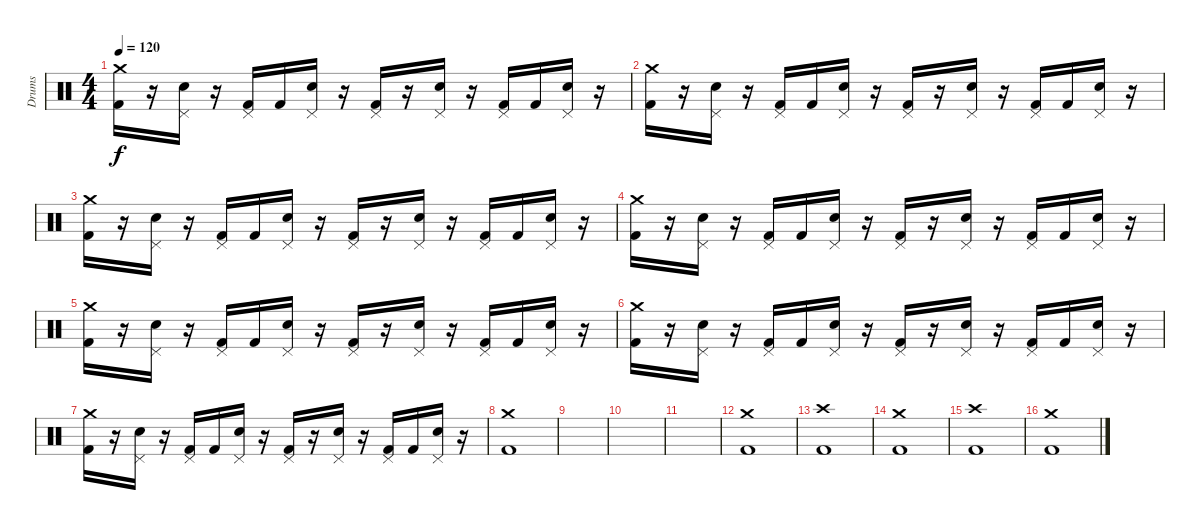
\track ("Drums" "Drums") {instrument percussion}
\staff {score}
\articulation defaults
\ts (4 4)
\tempo 120
\clef neutral
\ks c
("Crash medium (hit)" "Kick (hit) 2").16{dy f} r.16 ("Pedal Hi-Hat (hit)" "Snare (hit) 2").16 r.16 ("Pedal Hi-Hat (hit)" "Kick (hit) 2").16 "Kick (hit) 2".16 ("Pedal Hi-Hat (hit)" "Snare (hit) 2").16 r.16 ("Pedal Hi-Hat (hit)" "Kick (hit) 2").16 r.16 ("Pedal Hi-Hat (hit)" "Snare (hit) 2").16 r.16 ("Pedal Hi-Hat (hit)" "Kick (hit) 2").16 "Kick (hit) 2".16 ("Pedal Hi-Hat (hit)" "Snare (hit) 2").16 r.16 |
("Crash medium (hit)" "Kick (hit) 2").16 r.16 ("Pedal Hi-Hat (hit)" "Snare (hit) 2").16 r.16 ("Pedal Hi-Hat (hit)" "Kick (hit) 2").16 "Kick (hit) 2".16 ("Pedal Hi-Hat (hit)" "Snare (hit) 2").16 r.16 ("Pedal Hi-Hat (hit)" "Kick (hit) 2").16 r.16 ("Pedal Hi-Hat (hit)" "Snare (hit) 2").16 r.16 ("Pedal Hi-Hat (hit)" "Kick (hit) 2").16 "Kick (hit) 2".16 ("Pedal Hi-Hat (hit)" "Snare (hit) 2").16 r.16 |
("Crash medium (hit)" "Kick (hit) 2").16 r.16 ("Pedal Hi-Hat (hit)" "Snare (hit) 2").16 r.16 ("Pedal Hi-Hat (hit)" "Kick (hit) 2").16 "Kick (hit) 2".16 ("Pedal Hi-Hat (hit)" "Snare (hit) 2").16 r.16 ("Pedal Hi-Hat (hit)" "Kick (hit) 2").16 r.16 ("Pedal Hi-Hat (hit)" "Snare (hit) 2").16 r.16 ("Pedal Hi-Hat (hit)" "Kick (hit) 2").16 "Kick (hit) 2".16 ("Pedal Hi-Hat (hit)" "Snare (hit) 2").16 r.16 |
("Crash medium (hit)" "Kick (hit) 2").16 r.16 ("Pedal Hi-Hat (hit)" "Snare (hit) 2").16 r.16 ("Pedal Hi-Hat (hit)" "Kick (hit) 2").16 "Kick (hit) 2".16 ("Pedal Hi-Hat (hit)" "Snare (hit) 2").16 r.16 ("Pedal Hi-Hat (hit)" "Kick (hit) 2").16 r.16 ("Pedal Hi-Hat (hit)" "Snare (hit) 2").16 r.16 ("Pedal Hi-Hat (hit)" "Kick (hit) 2").16 "Kick (hit) 2".16 ("Pedal Hi-Hat (hit)" "Snare (hit) 2").16 r.16 |
("Crash medium (hit)" "Kick (hit) 2").16 r.16 ("Pedal Hi-Hat (hit)" "Snare (hit) 2").16 r.16 ("Pedal Hi-Hat (hit)" "Kick (hit) 2").16 "Kick (hit) 2".16 ("Pedal Hi-Hat (hit)" "Snare (hit) 2").16 r.16 ("Pedal Hi-Hat (hit)" "Kick (hit) 2").16 r.16 ("Pedal Hi-Hat (hit)" "Snare (hit) 2").16 r.16 ("Pedal Hi-Hat (hit)" "Kick (hit) 2").16 "Kick (hit) 2".16 ("Pedal Hi-Hat (hit)" "Snare (hit) 2").16 r.16 |
("Crash medium (hit)" "Kick (hit) 2").16 r.16 ("Pedal Hi-Hat (hit)" "Snare (hit) 2").16 r.16 ("Pedal Hi-Hat (hit)" "Kick (hit) 2").16 "Kick (hit) 2".16 ("Pedal Hi-Hat (hit)" "Snare (hit) 2").16 r.16 ("Pedal Hi-Hat (hit)" "Kick (hit) 2").16 r.16 ("Pedal Hi-Hat (hit)" "Snare (hit) 2").16 r.16 ("Pedal Hi-Hat (hit)" "Kick (hit) 2").16 "Kick (hit) 2".16 ("Pedal Hi-Hat (hit)" "Snare (hit) 2").16 r.16 |
("Crash medium (hit)" "Kick (hit) 2").16 r.16 ("Pedal Hi-Hat (hit)" "Snare (hit) 2").16 r.16 ("Pedal Hi-Hat (hit)" "Kick (hit) 2").16 "Kick (hit) 2".16 ("Pedal Hi-Hat (hit)" "Snare (hit) 2").16 r.16 ("Pedal Hi-Hat (hit)" "Kick (hit) 2").16 r.16 ("Pedal Hi-Hat (hit)" "Snare (hit) 2").16 r.16 ("Pedal Hi-Hat (hit)" "Kick (hit) 2").16 "Kick (hit) 2".16 ("Pedal Hi-Hat (hit)" "Snare (hit) 2").16 r.16 |
("Crash medium (hit)" "Kick (hit) 2").1 |
|
|
|
("Crash medium (hit)" "Kick (hit) 2").1 |
("Crash high (hit)" "Kick (hit) 2").1 |
("Crash medium (hit)" "Kick (hit) 2").1 |
("Crash high (hit)" "Kick (hit) 2").1 |
("Crash medium (hit)" "Kick (hit) 2").1
